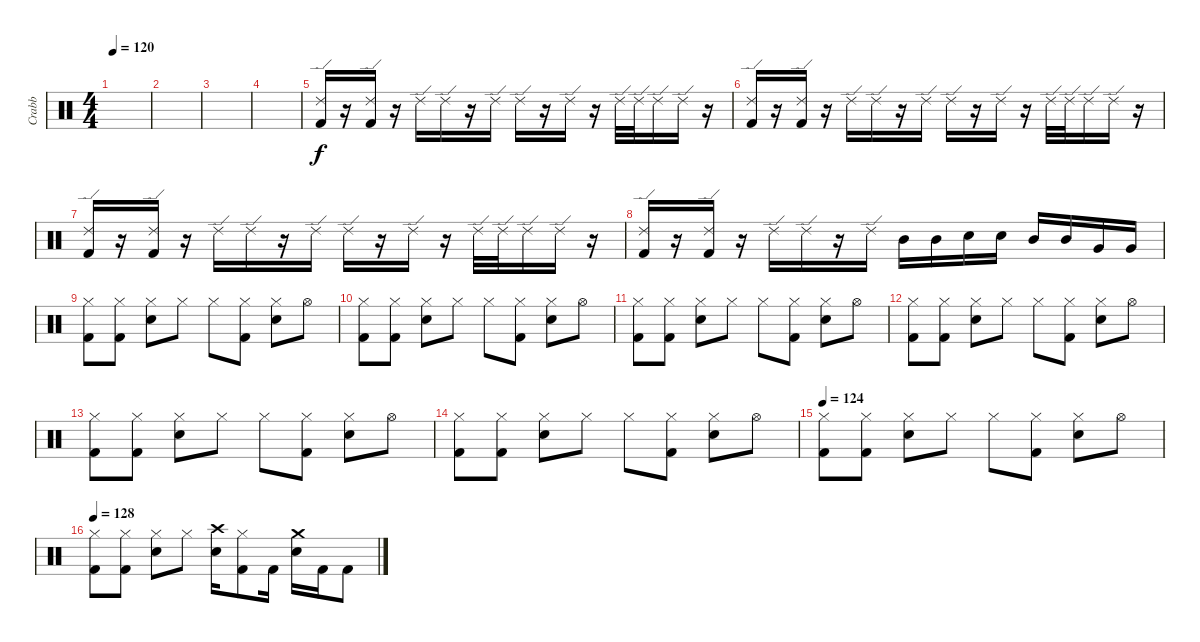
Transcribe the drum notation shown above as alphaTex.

\track ("Crabb" "Crabb") {instrument percussion}
\staff {score}
\articulation defaults
\ts (4 4)
\tempo 120
\clef neutral
\ks c
|
|
|
|
("Ride (edge) 2" "Kick (hit) 2").16 r.16 ("Ride (edge) 2" "Kick (hit) 2").16 r.16 "Ride (edge) 2".16 "Ride (edge) 2".16 r.16 "Ride (edge) 2".16 "Ride (edge) 2".16 r.16 "Ride (edge) 2".16 r.16 "Ride (edge) 2".32 "Ride (edge) 2".32 "Ride (edge) 2".16 "Ride (edge) 2".16 r.16 |
("Ride (edge) 2" "Kick (hit) 2").16 r.16 ("Ride (edge) 2" "Kick (hit) 2").16 r.16 "Ride (edge) 2".16 "Ride (edge) 2".16 r.16 "Ride (edge) 2".16 "Ride (edge) 2".16 r.16 "Ride (edge) 2".16 r.16 "Ride (edge) 2".32 "Ride (edge) 2".32 "Ride (edge) 2".16 "Ride (edge) 2".16 r.16 |
("Ride (edge) 2" "Kick (hit) 2").16 r.16 ("Ride (edge) 2" "Kick (hit) 2").16 r.16 "Ride (edge) 2".16 "Ride (edge) 2".16 r.16 "Ride (edge) 2".16 "Ride (edge) 2".16 r.16 "Ride (edge) 2".16 r.16 "Ride (edge) 2".32 "Ride (edge) 2".32 "Ride (edge) 2".16 "Ride (edge) 2".16 r.16 |
("Ride (edge) 2" "Kick (hit) 2").16 r.16 ("Ride (edge) 2" "Kick (hit) 2").16 r.16 "Ride (edge) 2".16 "Ride (edge) 2".16 r.16 "Ride (edge) 2".16 "Mid Tom (hit)".16 "Mid Tom (hit)".16 "Electric Snare (hit)".16 "Electric Snare (hit)".16 "Mid Tom (hit)".16 "Mid Tom (hit)".16 "Very Low Tom (hit)".16 "Very Low Tom (hit)".16 |
("Hi-Hat (closed)" "Kick (hit) 2").8 ("Hi-Hat (closed)" "Kick (hit) 2").8 ("Hi-Hat (closed)" "Electric Snare (hit)").8 "Hi-Hat (closed)".8 "Hi-Hat (closed)".8 ("Hi-Hat (closed)" "Kick (hit) 2").8 ("Hi-Hat (closed)" "Electric Snare (hit)").8 "Hi-Hat (open)".8 |
("Hi-Hat (closed)" "Kick (hit) 2").8 ("Hi-Hat (closed)" "Kick (hit) 2").8 ("Hi-Hat (closed)" "Electric Snare (hit)").8 "Hi-Hat (closed)".8 "Hi-Hat (closed)".8 ("Hi-Hat (closed)" "Kick (hit) 2").8 ("Hi-Hat (closed)" "Electric Snare (hit)").8 "Hi-Hat (open)".8 |
("Hi-Hat (closed)" "Kick (hit) 2").8 ("Hi-Hat (closed)" "Kick (hit) 2").8 ("Hi-Hat (closed)" "Electric Snare (hit)").8 "Hi-Hat (closed)".8 "Hi-Hat (closed)".8 ("Hi-Hat (closed)" "Kick (hit) 2").8 ("Hi-Hat (closed)" "Electric Snare (hit)").8 "Hi-Hat (open)".8 |
("Hi-Hat (closed)" "Kick (hit) 2").8 ("Hi-Hat (closed)" "Kick (hit) 2").8 ("Hi-Hat (closed)" "Electric Snare (hit)").8 "Hi-Hat (closed)".8 "Hi-Hat (closed)".8 ("Hi-Hat (closed)" "Kick (hit) 2").8 ("Hi-Hat (closed)" "Electric Snare (hit)").8 "Hi-Hat (open)".8 |
("Hi-Hat (closed)" "Kick (hit) 2").8 ("Hi-Hat (closed)" "Kick (hit) 2").8 ("Hi-Hat (closed)" "Electric Snare (hit)").8 "Hi-Hat (closed)".8 "Hi-Hat (closed)".8 ("Hi-Hat (closed)" "Kick (hit) 2").8 ("Hi-Hat (closed)" "Electric Snare (hit)").8 "Hi-Hat (open)".8 |
("Hi-Hat (closed)" "Kick (hit) 2").8 ("Hi-Hat (closed)" "Kick (hit) 2").8 ("Hi-Hat (closed)" "Electric Snare (hit)").8 "Hi-Hat (closed)".8 "Hi-Hat (closed)".8 ("Hi-Hat (closed)" "Kick (hit) 2").8 ("Hi-Hat (closed)" "Electric Snare (hit)").8 "Hi-Hat (open)".8 |
\tempo 124
("Hi-Hat (closed)" "Kick (hit) 2").8 ("Hi-Hat (closed)" "Kick (hit) 2").8 ("Hi-Hat (closed)" "Electric Snare (hit)").8 "Hi-Hat (closed)".8 "Hi-Hat (closed)".8 ("Hi-Hat (closed)" "Kick (hit) 2").8 ("Hi-Hat (closed)" "Electric Snare (hit)").8 "Hi-Hat (open)".8 |
\tempo 128
("Hi-Hat (closed)" "Kick (hit) 2").8 ("Hi-Hat (closed)" "Kick (hit) 2").8 ("Hi-Hat (closed)" "Electric Snare (hit)").8 "Hi-Hat (closed)".8 ("Crash high (hit)" "Electric Snare (hit)").16 ("Hi-Hat (closed)" "Kick (hit) 2").8 "Kick (hit) 2".16 ("Crash medium (hit)" "Electric Snare (hit)").16 "Kick (hit) 2".16 "Kick (hit) 2".8
